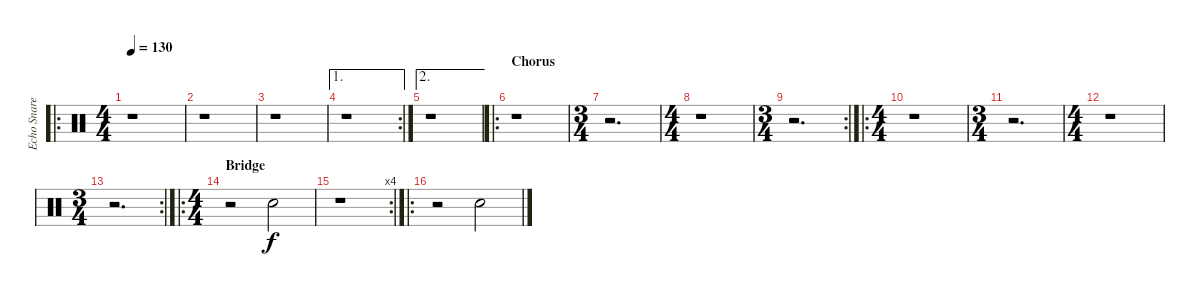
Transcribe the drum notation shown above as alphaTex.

\track ("Echo Snare" "Echo Snare") {instrument percussion}
\staff {score}
\articulation defaults
\ro
\ts (4 4)
\tempo 130
\clef neutral
\ks c
r.1{dy f} |
r.1 |
r.1 |
\ae 1
\rc 2
r.1 |
\ae 2
r.1 |
\ro
\section ("" "Chorus")
r.1 |
\ts (3 4)
r.2{d} |
\ts (4 4)
r.1 |
\rc 2
\ts (3 4)
r.2{d} |
\ro
\ts (4 4)
r.1 |
\ts (3 4)
r.2{d} |
\ts (4 4)
r.1 |
\rc 2
\ts (3 4)
r.2{d} |
\ro
\ts (4 4)
\section ("" "Bridge")
r.2 "Snare (hit) 2".2 |
\rc 4
r.1 |
\ro
r.2 "Snare (hit) 2".2
